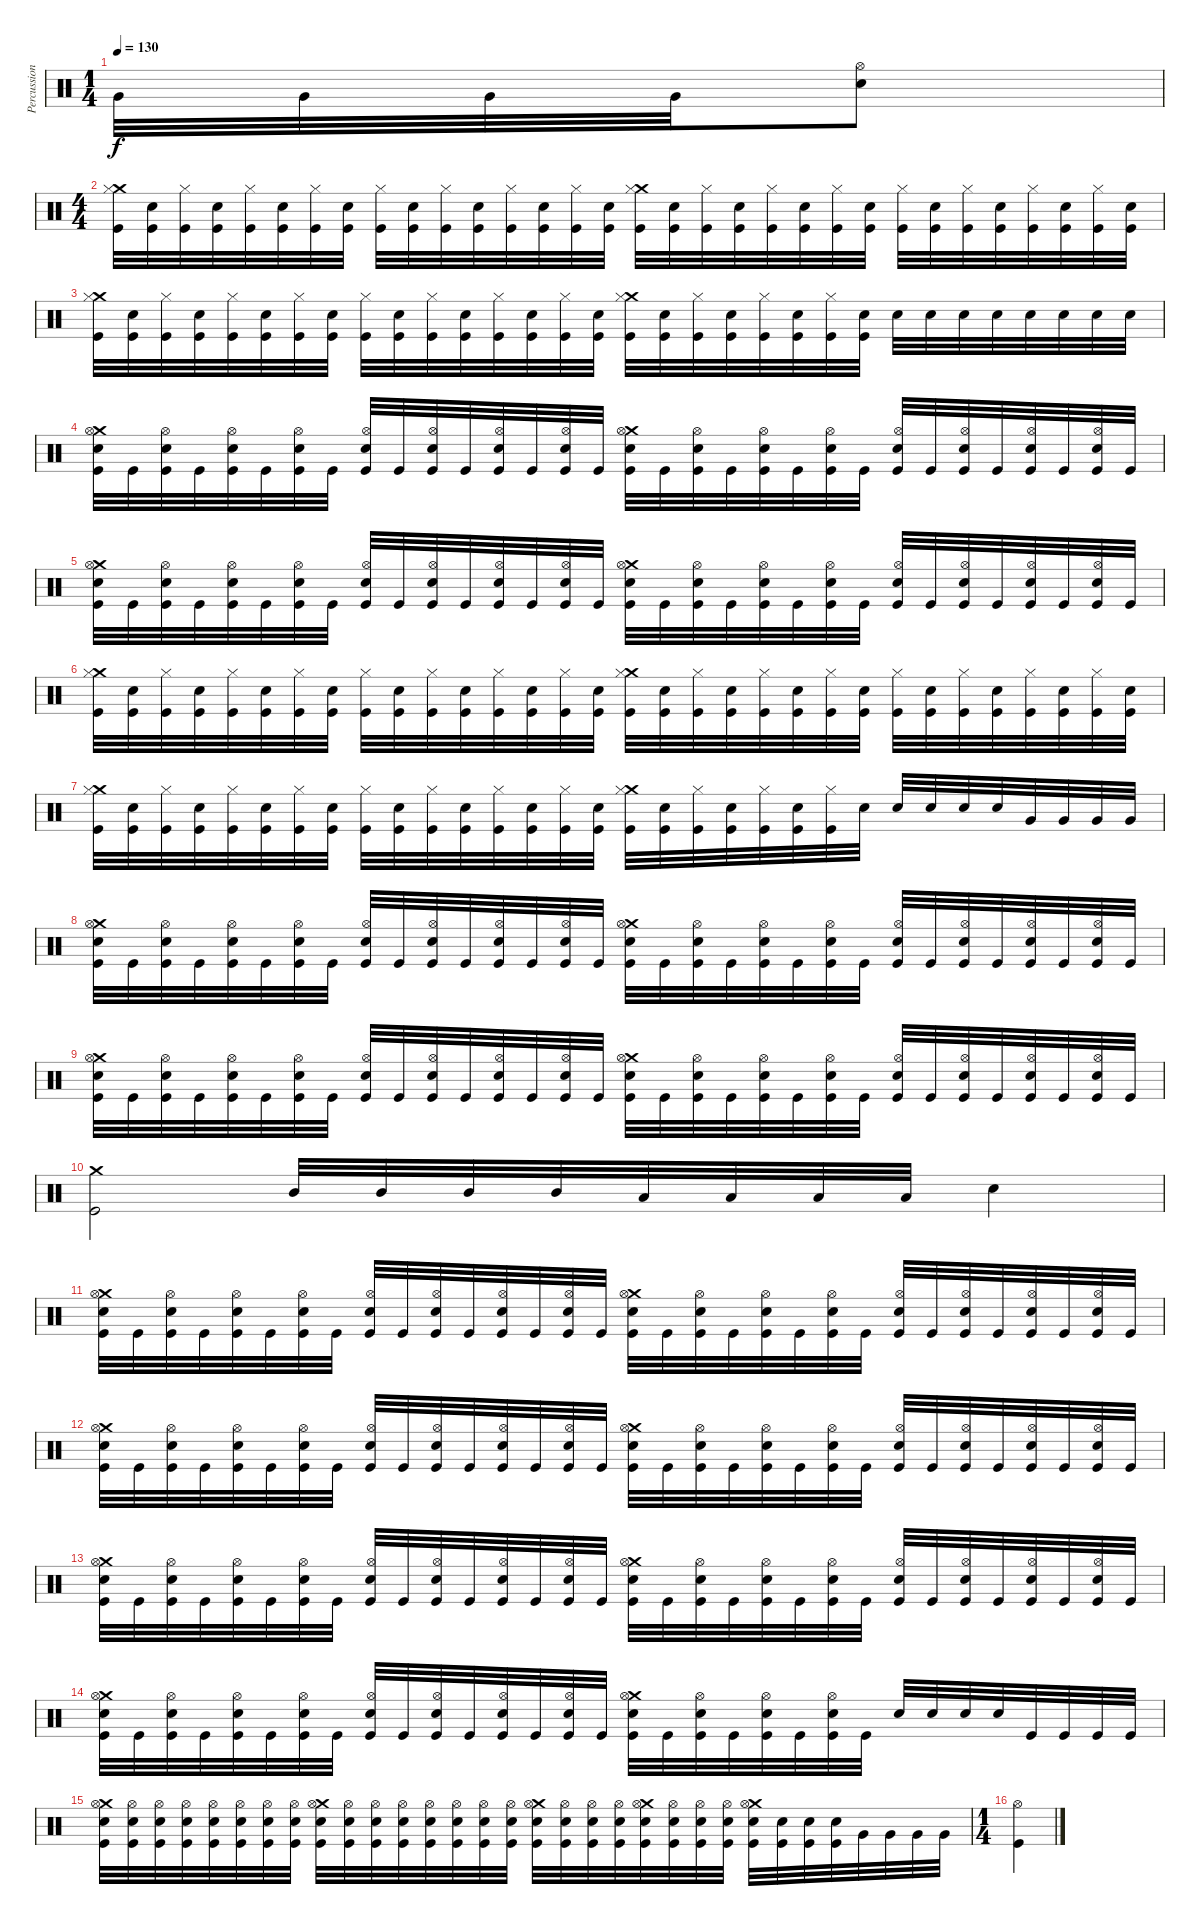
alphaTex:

\track ("Percussion" "Percussion") {instrument percussion}
\staff {score}
\articulation defaults
\ts (1 4)
\tempo 130
\clef neutral
\ks c "Very Low Tom (hit)".32{dy f} "Very Low Tom (hit)".32 "Very Low Tom (hit)".32 "Very Low Tom (hit)".32
("Electric Snare (hit)" "Hi-Hat (open)").8 |
\ts (4 4)
("Kick (hit)" "Crash medium (hit)" "Hi-Hat (closed)").32 ("Kick (hit)" "Electric Snare (hit)").32 ("Kick (hit)" "Hi-Hat (closed)").32 ("Kick (hit)" "Electric Snare (hit)").32 ("Kick (hit)" "Hi-Hat (closed)").32 ("Kick (hit)" "Electric Snare (hit)").32 ("Kick (hit)" "Hi-Hat (closed)").32 ("Kick (hit)" "Electric Snare (hit)").32 ("Kick (hit)" "Hi-Hat (closed)").32 ("Kick (hit)" "Electric Snare (hit)").32 ("Kick (hit)" "Hi-Hat (closed)").32 ("Kick (hit)" "Electric Snare (hit)").32 ("Kick (hit)" "Hi-Hat (closed)").32 ("Kick (hit)" "Electric Snare (hit)").32 ("Kick (hit)" "Hi-Hat (closed)").32 ("Kick (hit)" "Electric Snare (hit)").32 ("Kick (hit)" "Crash medium (hit)" "Hi-Hat (closed)").32 ("Kick (hit)" "Electric Snare (hit)").32 ("Kick (hit)" "Hi-Hat (closed)").32 ("Kick (hit)" "Electric Snare (hit)").32 ("Kick (hit)" "Hi-Hat (closed)").32 ("Kick (hit)" "Electric Snare (hit)").32 ("Kick (hit)" "Hi-Hat (closed)").32 ("Kick (hit)" "Electric Snare (hit)").32 ("Kick (hit)" "Hi-Hat (closed)").32 ("Kick (hit)" "Electric Snare (hit)").32 ("Kick (hit)" "Hi-Hat (closed)").32 ("Kick (hit)" "Electric Snare (hit)").32 ("Kick (hit)" "Hi-Hat (closed)").32 ("Kick (hit)" "Electric Snare (hit)").32 ("Kick (hit)" "Hi-Hat (closed)").32 ("Kick (hit)" "Electric Snare (hit)").32 |
("Kick (hit)" "Crash medium (hit)" "Hi-Hat (closed)").32 ("Kick (hit)" "Electric Snare (hit)").32 ("Kick (hit)" "Hi-Hat (closed)").32 ("Kick (hit)" "Electric Snare (hit)").32 ("Kick (hit)" "Hi-Hat (closed)").32 ("Kick (hit)" "Electric Snare (hit)").32 ("Kick (hit)" "Hi-Hat (closed)").32 ("Kick (hit)" "Electric Snare (hit)").32 ("Kick (hit)" "Hi-Hat (closed)").32 ("Kick (hit)" "Electric Snare (hit)").32 ("Kick (hit)" "Hi-Hat (closed)").32 ("Kick (hit)" "Electric Snare (hit)").32 ("Kick (hit)" "Hi-Hat (closed)").32 ("Kick (hit)" "Electric Snare (hit)").32 ("Kick (hit)" "Hi-Hat (closed)").32 ("Kick (hit)" "Electric Snare (hit)").32 ("Kick (hit)" "Crash medium (hit)" "Hi-Hat (closed)").32 ("Kick (hit)" "Electric Snare (hit)").32 ("Kick (hit)" "Hi-Hat (closed)").32 ("Kick (hit)" "Electric Snare (hit)").32 ("Kick (hit)" "Hi-Hat (closed)").32 ("Kick (hit)" "Electric Snare (hit)").32 ("Kick (hit)" "Hi-Hat (closed)").32 ("Kick (hit)" "Electric Snare (hit)").32 "Electric Snare (hit)".32 "Electric Snare (hit)".32 "Electric Snare (hit)".32 "Electric Snare (hit)".32 "Electric Snare (hit)".32 "Electric Snare (hit)".32 "Electric Snare (hit)".32 "Electric Snare (hit)".32 |
("Kick (hit)" "Electric Snare (hit)" "Crash medium (hit)" "Hi-Hat (open)").32 "Kick (hit)".32 ("Kick (hit)" "Electric Snare (hit)" "Hi-Hat (open)").32 "Kick (hit)".32 ("Kick (hit)" "Electric Snare (hit)" "Hi-Hat (open)").32 "Kick (hit)".32 ("Kick (hit)" "Electric Snare (hit)" "Hi-Hat (open)").32 "Kick (hit)".32 ("Kick (hit)" "Electric Snare (hit)" "Hi-Hat (open)").32 "Kick (hit)".32 ("Kick (hit)" "Electric Snare (hit)" "Hi-Hat (open)").32 "Kick (hit)".32 ("Kick (hit)" "Electric Snare (hit)" "Hi-Hat (open)").32 "Kick (hit)".32 ("Kick (hit)" "Electric Snare (hit)" "Hi-Hat (open)").32 "Kick (hit)".32 ("Kick (hit)" "Electric Snare (hit)" "Crash medium (hit)" "Hi-Hat (open)").32 "Kick (hit)".32 ("Kick (hit)" "Electric Snare (hit)" "Hi-Hat (open)").32 "Kick (hit)".32 ("Kick (hit)" "Electric Snare (hit)" "Hi-Hat (open)").32 "Kick (hit)".32 ("Kick (hit)" "Electric Snare (hit)" "Hi-Hat (open)").32 "Kick (hit)".32 ("Kick (hit)" "Electric Snare (hit)" "Hi-Hat (open)").32 "Kick (hit)".32 ("Kick (hit)" "Electric Snare (hit)" "Hi-Hat (open)").32 "Kick (hit)".32 ("Kick (hit)" "Electric Snare (hit)" "Hi-Hat (open)").32 "Kick (hit)".32 ("Kick (hit)" "Electric Snare (hit)" "Hi-Hat (open)").32 "Kick (hit)".32 |
("Kick (hit)" "Electric Snare (hit)" "Crash medium (hit)" "Hi-Hat (open)").32 "Kick (hit)".32 ("Kick (hit)" "Electric Snare (hit)" "Hi-Hat (open)").32 "Kick (hit)".32 ("Kick (hit)" "Electric Snare (hit)" "Hi-Hat (open)").32 "Kick (hit)".32 ("Kick (hit)" "Electric Snare (hit)" "Hi-Hat (open)").32 "Kick (hit)".32 ("Kick (hit)" "Electric Snare (hit)" "Hi-Hat (open)").32 "Kick (hit)".32 ("Kick (hit)" "Electric Snare (hit)" "Hi-Hat (open)").32 "Kick (hit)".32 ("Kick (hit)" "Electric Snare (hit)" "Hi-Hat (open)").32 "Kick (hit)".32 ("Kick (hit)" "Electric Snare (hit)" "Hi-Hat (open)").32 "Kick (hit)".32 ("Kick (hit)" "Electric Snare (hit)" "Crash medium (hit)" "Hi-Hat (open)").32 "Kick (hit)".32 ("Kick (hit)" "Electric Snare (hit)" "Hi-Hat (open)").32 "Kick (hit)".32 ("Kick (hit)" "Electric Snare (hit)" "Hi-Hat (open)").32 "Kick (hit)".32 ("Kick (hit)" "Electric Snare (hit)" "Hi-Hat (open)").32 "Kick (hit)".32 ("Kick (hit)" "Electric Snare (hit)" "Hi-Hat (open)").32 "Kick (hit)".32 ("Kick (hit)" "Electric Snare (hit)" "Hi-Hat (open)").32 "Kick (hit)".32 ("Kick (hit)" "Electric Snare (hit)" "Hi-Hat (open)").32 "Kick (hit)".32 ("Kick (hit)" "Electric Snare (hit)" "Hi-Hat (open)").32 "Kick (hit)".32 |
("Kick (hit)" "Crash medium (hit)" "Hi-Hat (closed)").32 ("Kick (hit)" "Electric Snare (hit)").32 ("Kick (hit)" "Hi-Hat (closed)").32 ("Kick (hit)" "Electric Snare (hit)").32 ("Kick (hit)" "Hi-Hat (closed)").32 ("Kick (hit)" "Electric Snare (hit)").32 ("Kick (hit)" "Hi-Hat (closed)").32 ("Kick (hit)" "Electric Snare (hit)").32 ("Kick (hit)" "Hi-Hat (closed)").32 ("Kick (hit)" "Electric Snare (hit)").32 ("Kick (hit)" "Hi-Hat (closed)").32 ("Kick (hit)" "Electric Snare (hit)").32 ("Kick (hit)" "Hi-Hat (closed)").32 ("Kick (hit)" "Electric Snare (hit)").32 ("Kick (hit)" "Hi-Hat (closed)").32 ("Kick (hit)" "Electric Snare (hit)").32 ("Kick (hit)" "Crash medium (hit)" "Hi-Hat (closed)").32 ("Kick (hit)" "Electric Snare (hit)").32 ("Kick (hit)" "Hi-Hat (closed)").32 ("Kick (hit)" "Electric Snare (hit)").32 ("Kick (hit)" "Hi-Hat (closed)").32 ("Kick (hit)" "Electric Snare (hit)").32 ("Kick (hit)" "Hi-Hat (closed)").32 ("Kick (hit)" "Electric Snare (hit)").32 ("Kick (hit)" "Hi-Hat (closed)").32 ("Kick (hit)" "Electric Snare (hit)").32 ("Kick (hit)" "Hi-Hat (closed)").32 ("Kick (hit)" "Electric Snare (hit)").32 ("Kick (hit)" "Hi-Hat (closed)").32 ("Kick (hit)" "Electric Snare (hit)").32 ("Kick (hit)" "Hi-Hat (closed)").32 ("Kick (hit)" "Electric Snare (hit)").32 |
("Kick (hit)" "Crash medium (hit)" "Hi-Hat (closed)").32 ("Kick (hit)" "Electric Snare (hit)").32 ("Kick (hit)" "Hi-Hat (closed)").32 ("Kick (hit)" "Electric Snare (hit)").32 ("Kick (hit)" "Hi-Hat (closed)").32 ("Kick (hit)" "Electric Snare (hit)").32 ("Kick (hit)" "Hi-Hat (closed)").32 ("Kick (hit)" "Electric Snare (hit)").32 ("Kick (hit)" "Hi-Hat (closed)").32 ("Kick (hit)" "Electric Snare (hit)").32 ("Kick (hit)" "Hi-Hat (closed)").32 ("Kick (hit)" "Electric Snare (hit)").32 ("Kick (hit)" "Hi-Hat (closed)").32 ("Kick (hit)" "Electric Snare (hit)").32 ("Kick (hit)" "Hi-Hat (closed)").32 ("Kick (hit)" "Electric Snare (hit)").32 ("Kick (hit)" "Crash medium (hit)" "Hi-Hat (closed)").32 ("Kick (hit)" "Electric Snare (hit)").32 ("Kick (hit)" "Hi-Hat (closed)").32 ("Kick (hit)" "Electric Snare (hit)").32 ("Kick (hit)" "Hi-Hat (closed)").32 ("Kick (hit)" "Electric Snare (hit)").32 ("Kick (hit)" "Hi-Hat (closed)").32 "Electric Snare (hit)".32 "Electric Snare (hit)".32 "Electric Snare (hit)".32 "Electric Snare (hit)".32 "Electric Snare (hit)".32 "Very Low Tom (hit)".32 "Very Low Tom (hit)".32 "Very Low Tom (hit)".32 "Very Low Tom (hit)".32 |
("Kick (hit)" "Electric Snare (hit)" "Crash medium (hit)" "Hi-Hat (open)").32 "Kick (hit)".32 ("Kick (hit)" "Electric Snare (hit)" "Hi-Hat (open)").32 "Kick (hit)".32 ("Kick (hit)" "Electric Snare (hit)" "Hi-Hat (open)").32 "Kick (hit)".32 ("Kick (hit)" "Electric Snare (hit)" "Hi-Hat (open)").32 "Kick (hit)".32 ("Kick (hit)" "Electric Snare (hit)" "Hi-Hat (open)").32 "Kick (hit)".32 ("Kick (hit)" "Electric Snare (hit)" "Hi-Hat (open)").32 "Kick (hit)".32 ("Kick (hit)" "Electric Snare (hit)" "Hi-Hat (open)").32 "Kick (hit)".32 ("Kick (hit)" "Electric Snare (hit)" "Hi-Hat (open)").32 "Kick (hit)".32 ("Kick (hit)" "Electric Snare (hit)" "Crash medium (hit)" "Hi-Hat (open)").32 "Kick (hit)".32 ("Kick (hit)" "Electric Snare (hit)" "Hi-Hat (open)").32 "Kick (hit)".32 ("Kick (hit)" "Electric Snare (hit)" "Hi-Hat (open)").32 "Kick (hit)".32 ("Kick (hit)" "Electric Snare (hit)" "Hi-Hat (open)").32 "Kick (hit)".32 ("Kick (hit)" "Electric Snare (hit)" "Hi-Hat (open)").32 "Kick (hit)".32 ("Kick (hit)" "Electric Snare (hit)" "Hi-Hat (open)").32 "Kick (hit)".32 ("Kick (hit)" "Electric Snare (hit)" "Hi-Hat (open)").32 "Kick (hit)".32 ("Kick (hit)" "Electric Snare (hit)" "Hi-Hat (open)").32 "Kick (hit)".32 |
("Kick (hit)" "Electric Snare (hit)" "Crash medium (hit)" "Hi-Hat (open)").32 "Kick (hit)".32 ("Kick (hit)" "Electric Snare (hit)" "Hi-Hat (open)").32 "Kick (hit)".32 ("Kick (hit)" "Electric Snare (hit)" "Hi-Hat (open)").32 "Kick (hit)".32 ("Kick (hit)" "Electric Snare (hit)" "Hi-Hat (open)").32 "Kick (hit)".32 ("Kick (hit)" "Electric Snare (hit)" "Hi-Hat (open)").32 "Kick (hit)".32 ("Kick (hit)" "Electric Snare (hit)" "Hi-Hat (open)").32 "Kick (hit)".32 ("Kick (hit)" "Electric Snare (hit)" "Hi-Hat (open)").32 "Kick (hit)".32 ("Kick (hit)" "Electric Snare (hit)" "Hi-Hat (open)").32 "Kick (hit)".32 ("Kick (hit)" "Electric Snare (hit)" "Crash medium (hit)" "Hi-Hat (open)").32 "Kick (hit)".32 ("Kick (hit)" "Electric Snare (hit)" "Hi-Hat (open)").32 "Kick (hit)".32 ("Kick (hit)" "Electric Snare (hit)" "Hi-Hat (open)").32 "Kick (hit)".32 ("Kick (hit)" "Electric Snare (hit)" "Hi-Hat (open)").32 "Kick (hit)".32 ("Kick (hit)" "Electric Snare (hit)" "Hi-Hat (open)").32 "Kick (hit)".32 ("Kick (hit)" "Electric Snare (hit)" "Hi-Hat (open)").32 "Kick (hit)".32 ("Kick (hit)" "Electric Snare (hit)" "Hi-Hat (open)").32 "Kick (hit)".32 ("Kick (hit)" "Electric Snare (hit)" "Hi-Hat (open)").32 "Kick (hit)".32 |
("Kick (hit)" "Crash medium (hit)").2 "Mid Tom (hit)".32 "Mid Tom (hit)".32 "Mid Tom (hit)".32 "Mid Tom (hit)".32 "Low Tom (hit)".32 "Low Tom (hit)".32 "Low Tom (hit)".32 "Low Tom (hit)".32 "Electric Snare (hit)".4 |
("Kick (hit)" "Electric Snare (hit)" "Crash medium (hit)" "Hi-Hat (open)").32 "Kick (hit)".32 ("Kick (hit)" "Electric Snare (hit)" "Hi-Hat (open)").32 "Kick (hit)".32 ("Kick (hit)" "Electric Snare (hit)" "Hi-Hat (open)").32 "Kick (hit)".32 ("Kick (hit)" "Electric Snare (hit)" "Hi-Hat (open)").32 "Kick (hit)".32 ("Kick (hit)" "Electric Snare (hit)" "Hi-Hat (open)").32 "Kick (hit)".32 ("Kick (hit)" "Electric Snare (hit)" "Hi-Hat (open)").32 "Kick (hit)".32 ("Kick (hit)" "Electric Snare (hit)" "Hi-Hat (open)").32 "Kick (hit)".32 ("Kick (hit)" "Electric Snare (hit)" "Hi-Hat (open)").32 "Kick (hit)".32 ("Kick (hit)" "Electric Snare (hit)" "Crash medium (hit)" "Hi-Hat (open)").32 "Kick (hit)".32 ("Kick (hit)" "Electric Snare (hit)" "Hi-Hat (open)").32 "Kick (hit)".32 ("Kick (hit)" "Electric Snare (hit)" "Hi-Hat (open)").32 "Kick (hit)".32 ("Kick (hit)" "Electric Snare (hit)" "Hi-Hat (open)").32 "Kick (hit)".32 ("Kick (hit)" "Electric Snare (hit)" "Hi-Hat (open)").32 "Kick (hit)".32 ("Kick (hit)" "Electric Snare (hit)" "Hi-Hat (open)").32 "Kick (hit)".32 ("Kick (hit)" "Electric Snare (hit)" "Hi-Hat (open)").32 "Kick (hit)".32 ("Kick (hit)" "Electric Snare (hit)" "Hi-Hat (open)").32 "Kick (hit)".32 |
("Kick (hit)" "Electric Snare (hit)" "Crash medium (hit)" "Hi-Hat (open)").32 "Kick (hit)".32 ("Kick (hit)" "Electric Snare (hit)" "Hi-Hat (open)").32 "Kick (hit)".32 ("Kick (hit)" "Electric Snare (hit)" "Hi-Hat (open)").32 "Kick (hit)".32 ("Kick (hit)" "Electric Snare (hit)" "Hi-Hat (open)").32 "Kick (hit)".32 ("Kick (hit)" "Electric Snare (hit)" "Hi-Hat (open)").32 "Kick (hit)".32 ("Kick (hit)" "Electric Snare (hit)" "Hi-Hat (open)").32 "Kick (hit)".32 ("Kick (hit)" "Electric Snare (hit)" "Hi-Hat (open)").32 "Kick (hit)".32 ("Kick (hit)" "Electric Snare (hit)" "Hi-Hat (open)").32 "Kick (hit)".32 ("Kick (hit)" "Electric Snare (hit)" "Crash medium (hit)" "Hi-Hat (open)").32 "Kick (hit)".32 ("Kick (hit)" "Electric Snare (hit)" "Hi-Hat (open)").32 "Kick (hit)".32 ("Kick (hit)" "Electric Snare (hit)" "Hi-Hat (open)").32 "Kick (hit)".32 ("Kick (hit)" "Electric Snare (hit)" "Hi-Hat (open)").32 "Kick (hit)".32 ("Kick (hit)" "Electric Snare (hit)" "Hi-Hat (open)").32 "Kick (hit)".32 ("Kick (hit)" "Electric Snare (hit)" "Hi-Hat (open)").32 "Kick (hit)".32 ("Kick (hit)" "Electric Snare (hit)" "Hi-Hat (open)").32 "Kick (hit)".32 ("Kick (hit)" "Electric Snare (hit)" "Hi-Hat (open)").32 "Kick (hit)".32 |
("Kick (hit)" "Electric Snare (hit)" "Crash medium (hit)" "Hi-Hat (open)").32 "Kick (hit)".32 ("Kick (hit)" "Electric Snare (hit)" "Hi-Hat (open)").32 "Kick (hit)".32 ("Kick (hit)" "Electric Snare (hit)" "Hi-Hat (open)").32 "Kick (hit)".32 ("Kick (hit)" "Electric Snare (hit)" "Hi-Hat (open)").32 "Kick (hit)".32 ("Kick (hit)" "Electric Snare (hit)" "Hi-Hat (open)").32 "Kick (hit)".32 ("Kick (hit)" "Electric Snare (hit)" "Hi-Hat (open)").32 "Kick (hit)".32 ("Kick (hit)" "Electric Snare (hit)" "Hi-Hat (open)").32 "Kick (hit)".32 ("Kick (hit)" "Electric Snare (hit)" "Hi-Hat (open)").32 "Kick (hit)".32 ("Kick (hit)" "Electric Snare (hit)" "Crash medium (hit)" "Hi-Hat (open)").32 "Kick (hit)".32 ("Kick (hit)" "Electric Snare (hit)" "Hi-Hat (open)").32 "Kick (hit)".32 ("Kick (hit)" "Electric Snare (hit)" "Hi-Hat (open)").32 "Kick (hit)".32 ("Kick (hit)" "Electric Snare (hit)" "Hi-Hat (open)").32 "Kick (hit)".32 ("Kick (hit)" "Electric Snare (hit)" "Hi-Hat (open)").32 "Kick (hit)".32 ("Kick (hit)" "Electric Snare (hit)" "Hi-Hat (open)").32 "Kick (hit)".32 ("Kick (hit)" "Electric Snare (hit)" "Hi-Hat (open)").32 "Kick (hit)".32 ("Kick (hit)" "Electric Snare (hit)" "Hi-Hat (open)").32 "Kick (hit)".32 |
("Kick (hit)" "Electric Snare (hit)" "Crash medium (hit)" "Hi-Hat (open)").32 "Kick (hit)".32 ("Kick (hit)" "Electric Snare (hit)" "Hi-Hat (open)").32 "Kick (hit)".32 ("Kick (hit)" "Electric Snare (hit)" "Hi-Hat (open)").32 "Kick (hit)".32 ("Kick (hit)" "Electric Snare (hit)" "Hi-Hat (open)").32 "Kick (hit)".32 ("Kick (hit)" "Electric Snare (hit)" "Hi-Hat (open)").32 "Kick (hit)".32 ("Kick (hit)" "Electric Snare (hit)" "Hi-Hat (open)").32 "Kick (hit)".32 ("Kick (hit)" "Electric Snare (hit)" "Hi-Hat (open)").32 "Kick (hit)".32 ("Kick (hit)" "Electric Snare (hit)" "Hi-Hat (open)").32 "Kick (hit)".32 ("Kick (hit)" "Electric Snare (hit)" "Crash medium (hit)" "Hi-Hat (open)").32 "Kick (hit)".32 ("Kick (hit)" "Electric Snare (hit)" "Hi-Hat (open)").32 "Kick (hit)".32 ("Kick (hit)" "Electric Snare (hit)" "Hi-Hat (open)").32 "Kick (hit)".32 ("Kick (hit)" "Electric Snare (hit)" "Hi-Hat (open)").32 "Kick (hit)".32 "Electric Snare (hit)".32 "Electric Snare (hit)".32 "Electric Snare (hit)".32 "Electric Snare (hit)".32 "Kick (hit)".32 "Kick (hit)".32 "Kick (hit)".32 "Kick (hit)".32 |
("Kick (hit)" "Electric Snare (hit)" "Crash medium (hit)" "Hi-Hat (open)").32 ("Kick (hit)" "Electric Snare (hit)" "Hi-Hat (open)").32 ("Kick (hit)" "Electric Snare (hit)" "Hi-Hat (open)").32 ("Kick (hit)" "Electric Snare (hit)" "Hi-Hat (open)").32 ("Kick (hit)" "Electric Snare (hit)" "Hi-Hat (open)").32 ("Kick (hit)" "Electric Snare (hit)" "Hi-Hat (open)").32 ("Kick (hit)" "Electric Snare (hit)" "Hi-Hat (open)").32 ("Kick (hit)" "Electric Snare (hit)" "Hi-Hat (open)").32 ("Kick (hit)" "Electric Snare (hit)" "Crash medium (hit)" "Hi-Hat (open)").32 ("Kick (hit)" "Electric Snare (hit)" "Hi-Hat (open)").32 ("Kick (hit)" "Electric Snare (hit)" "Hi-Hat (open)").32 ("Kick (hit)" "Electric Snare (hit)" "Hi-Hat (open)").32 ("Kick (hit)" "Electric Snare (hit)" "Hi-Hat (open)").32 ("Kick (hit)" "Electric Snare (hit)" "Hi-Hat (open)").32 ("Kick (hit)" "Electric Snare (hit)" "Hi-Hat (open)").32 ("Kick (hit)" "Electric Snare (hit)" "Hi-Hat (open)").32 ("Kick (hit)" "Electric Snare (hit)" "Crash medium (hit)" "Hi-Hat (open)").32 ("Kick (hit)" "Electric Snare (hit)" "Hi-Hat (open)").32 ("Kick (hit)" "Electric Snare (hit)" "Hi-Hat (open)").32 ("Kick (hit)" "Electric Snare (hit)" "Hi-Hat (open)").32 ("Kick (hit)" "Electric Snare (hit)" "Crash medium (hit)" "Hi-Hat (open)").32 ("Kick (hit)" "Electric Snare (hit)" "Hi-Hat (open)").32 ("Kick (hit)" "Electric Snare (hit)" "Hi-Hat (open)").32 ("Kick (hit)" "Electric Snare (hit)" "Hi-Hat (open)").32 ("Kick (hit)" "Electric Snare (hit)" "Crash medium (hit)" "Hi-Hat (open)").32 ("Kick (hit)" "Electric Snare (hit)").32 ("Kick (hit)" "Electric Snare (hit)").32 ("Kick (hit)" "Electric Snare (hit)").32 "Very Low Tom (hit)".32 "Very Low Tom (hit)".32 "Very Low Tom (hit)".32 "Very Low Tom (hit)".32 |
\ts (1 4)
("Hi-Hat (open)" "Kick (hit)").4
